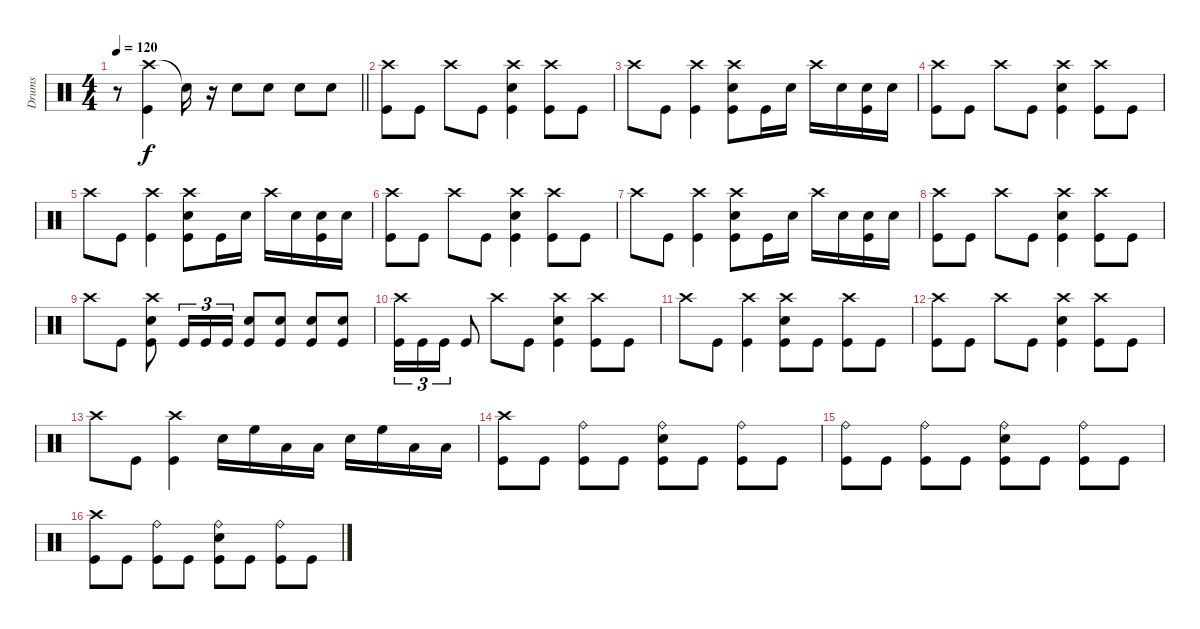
\track ("Drums" "Drums") {instrument percussion}
\staff {score}
\articulation defaults
\ts (4 4)
\tempo 120
\clef neutral
\barLineRight lightlight
\ks c
r.8{dy f} ("Crash high (hit)" "Kick (hit)").4 "Snare (hit)"{t}.16 r.16 "Snare (hit) 2".8 "Snare (hit) 2".8 "Snare (hit) 2".8 "Snare (hit) 2".8 |
("Kick (hit)" "Crash high (hit)").8 "Kick (hit)".8 "Crash high (hit)".8 "Kick (hit)".8 ("Kick (hit)" "Snare (hit) 2" "Crash high (hit)").4 ("Kick (hit)" "Crash high (hit)").8 "Kick (hit)".8 |
"Crash high (hit)".8 "Kick (hit)".8 ("Kick (hit)" "Crash high (hit)").4 ("Kick (hit)" "Snare (hit) 2" "Crash high (hit)").8 "Kick (hit)".16 "Snare (hit) 2".16 "Crash high (hit)".16 "Snare (hit) 2".16 ("Snare (hit) 2" "Kick (hit)").16 "Snare (hit) 2".16 |
("Crash high (hit)" "Kick (hit)").8 "Kick (hit)".8 "Crash high (hit)".8 "Kick (hit)".8 ("Snare (hit) 2" "Crash high (hit)" "Kick (hit)").4 ("Crash high (hit)" "Kick (hit)").8 "Kick (hit)".8 |
"Crash high (hit)".8 "Kick (hit)".8 ("Kick (hit)" "Crash high (hit)").4 ("Kick (hit)" "Snare (hit) 2" "Crash high (hit)").8 "Kick (hit)".16 "Snare (hit) 2".16 "Crash high (hit)".16 "Snare (hit) 2".16 ("Kick (hit)" "Snare (hit) 2").16 "Snare (hit) 2".16 |
("Crash high (hit)" "Kick (hit)").8 "Kick (hit)".8 "Crash high (hit)".8 "Kick (hit)".8 ("Snare (hit) 2" "Crash high (hit)" "Kick (hit)").4 ("Crash high (hit)" "Kick (hit)").8 "Kick (hit)".8 |
"Crash high (hit)".8 "Kick (hit)".8 ("Crash high (hit)" "Kick (hit)").4 ("Snare (hit) 2" "Crash high (hit)" "Kick (hit)").8 "Kick (hit)".16 "Snare (hit) 2".16 "Crash high (hit)".16 "Snare (hit) 2".16 ("Kick (hit)" "Snare (hit) 2").16 "Snare (hit) 2".16 |
("Crash high (hit)" "Kick (hit)").8 "Kick (hit)".8 "Crash high (hit)".8 "Kick (hit)".8 ("Snare (hit) 2" "Crash high (hit)" "Kick (hit)").4 ("Crash high (hit)" "Kick (hit)").8 "Kick (hit)".8 |
"Crash high (hit)".8 "Kick (hit)".8 ("Snare (hit) 2" "Crash high (hit)" "Kick (hit)").8 "Kick (hit)".16{tu (3 2)} "Kick (hit)".16{tu (3 2)} "Kick (hit)".16{tu (3 2)} ("Kick (hit)" "Snare (hit) 2").8 ("Kick (hit)" "Snare (hit) 2").8 ("Kick (hit)" "Snare (hit) 2").8 ("Kick (hit)" "Snare (hit) 2").8 |
("Kick (hit)" "Crash high (hit)").16{tu (3 2)} "Kick (hit)".16{tu (3 2)} "Kick (hit)".16{tu (3 2)} "Kick (hit)".8 "Crash high (hit)".8 "Kick (hit)".8 ("Snare (hit) 2" "Crash high (hit)" "Kick (hit)").4 ("Crash high (hit)" "Kick (hit)").8 "Kick (hit)".8 |
"Crash high (hit)".8 "Kick (hit)".8 ("Kick (hit)" "Crash high (hit)").4 ("Kick (hit)" "Snare (hit) 2" "Crash high (hit)").8 "Kick (hit)".8 ("Crash high (hit)" "Kick (hit)").8 "Kick (hit)".8 |
("Crash high (hit)" "Kick (hit)").8 "Kick (hit)".8 "Crash high (hit)".8 "Kick (hit)".8 ("Snare (hit) 2" "Crash high (hit)" "Kick (hit)").4 ("Crash high (hit)" "Kick (hit)").8 "Kick (hit)".8 |
"Crash high (hit)".8 "Kick (hit)".8 ("Crash high (hit)" "Kick (hit)").4 "Snare (hit) 2".16 "High Floor Tom (hit)".16 "Low Tom (hit)".16 "Low Floor Tom (hit)".16 "Snare (hit) 2".16 "High Floor Tom (hit)".16 "Low Tom (hit)".16 "Low Floor Tom (hit)".16 |
("Kick (hit)" "Crash high (hit)").8 "Kick (hit)".8 ("Kick (hit)" "Ride (bell)").8 "Kick (hit)".8 ("Kick (hit)" "Snare (hit) 2" "Ride (bell)").8 "Kick (hit)".8 ("Kick (hit)" "Ride (bell)").8 "Kick (hit)".8 |
("Ride (bell)" "Kick (hit)").8 "Kick (hit)".8 ("Ride (bell)" "Kick (hit)").8 "Kick (hit)".8 ("Snare (hit) 2" "Ride (bell)" "Kick (hit)").8 "Kick (hit)".8 ("Ride (bell)" "Kick (hit)").8 "Kick (hit)".8 |
("Crash high (hit)" "Kick (hit)").8 "Kick (hit)".8 ("Ride (bell)" "Kick (hit)").8 "Kick (hit)".8 ("Snare (hit) 2" "Ride (bell)" "Kick (hit)").8 "Kick (hit)".8 ("Ride (bell)" "Kick (hit)").8 "Kick (hit)".8
